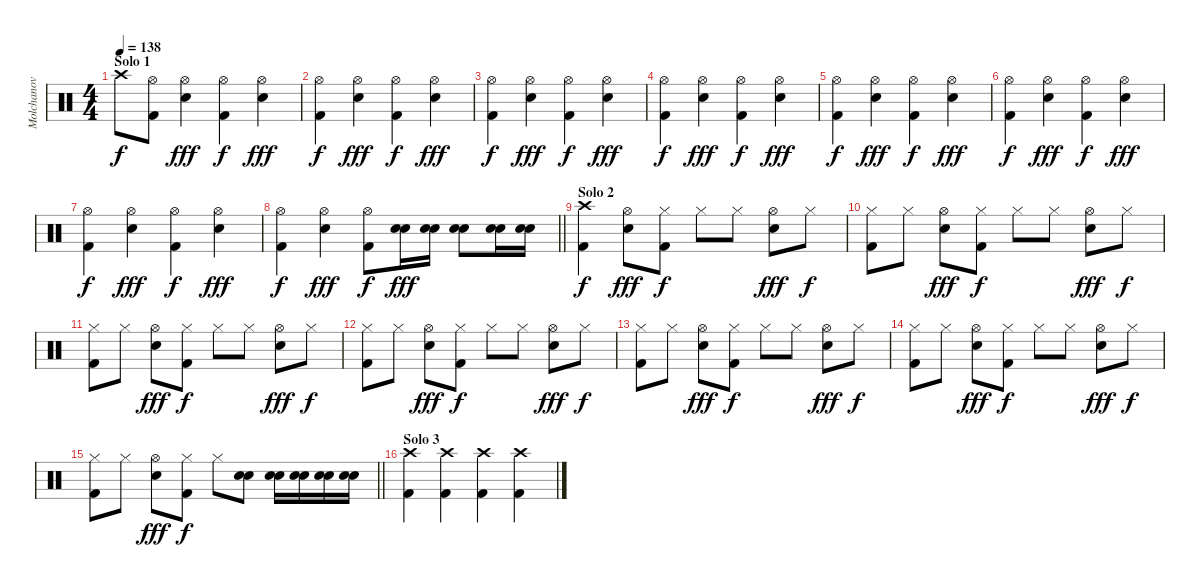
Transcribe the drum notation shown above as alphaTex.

\track ("Molchanov" "Molchanov") {instrument percussion}
\staff {score}
\articulation defaults
\ts (4 4)
\section ("" "Solo 1")
\tempo 138
\clef neutral
\ks c "Crash high (hit)"{t}.8{dy f}
("Hi-Hat (open)" "Kick (hit) 2").8 ("Hi-Hat (open)" "Electric Snare (hit)").4{dy fff} ("Hi-Hat (open)" "Kick (hit) 2").4{dy f} ("Hi-Hat (open)" "Electric Snare (hit)").4{dy fff} |
("Hi-Hat (open)" "Kick (hit) 2").4{dy f} ("Hi-Hat (open)" "Electric Snare (hit)").4{dy fff} ("Hi-Hat (open)" "Kick (hit) 2").4{dy f} ("Hi-Hat (open)" "Electric Snare (hit)").4{dy fff} |
("Hi-Hat (open)" "Kick (hit) 2").4{dy f} ("Hi-Hat (open)" "Electric Snare (hit)").4{dy fff} ("Hi-Hat (open)" "Kick (hit) 2").4{dy f} ("Hi-Hat (open)" "Electric Snare (hit)").4{dy fff} |
("Hi-Hat (open)" "Kick (hit) 2").4{dy f} ("Hi-Hat (open)" "Electric Snare (hit)").4{dy fff} ("Hi-Hat (open)" "Kick (hit) 2").4{dy f} ("Hi-Hat (open)" "Electric Snare (hit)").4{dy fff} |
("Hi-Hat (open)" "Kick (hit) 2").4{dy f} ("Hi-Hat (open)" "Electric Snare (hit)").4{dy fff} ("Hi-Hat (open)" "Kick (hit) 2").4{dy f} ("Hi-Hat (open)" "Electric Snare (hit)").4{dy fff} |
("Hi-Hat (open)" "Kick (hit) 2").4{dy f} ("Hi-Hat (open)" "Electric Snare (hit)").4{dy fff} ("Hi-Hat (open)" "Kick (hit) 2").4{dy f} ("Hi-Hat (open)" "Electric Snare (hit)").4{dy fff} |
("Hi-Hat (open)" "Kick (hit) 2").4{dy f} ("Hi-Hat (open)" "Electric Snare (hit)").4{dy fff} ("Hi-Hat (open)" "Kick (hit) 2").4{dy f} ("Hi-Hat (open)" "Electric Snare (hit)").4{dy fff} |
\barLineRight lightlight
("Hi-Hat (open)" "Kick (hit) 2").4{dy f} ("Hi-Hat (open)" "Electric Snare (hit)").4{dy fff} ("Hi-Hat (open)" "Kick (hit) 2").8{dy f} ("Electric Snare (hit)" "Electric Snare (hit)").16{dy fff} ("Electric Snare (hit)" "Electric Snare (hit)").16 ("Electric Snare (hit)" "Electric Snare (hit)").8 ("Electric Snare (hit)" "Electric Snare (hit)").16 ("Electric Snare (hit)" "Electric Snare (hit)").16 |
\section ("" "Solo 2")
("Crash high (hit)" "Kick (hit) 2").4{dy f} ("Hi-Hat (open)" "Electric Snare (hit)").8{dy fff} ("Hi-Hat (closed)" "Kick (hit) 2").8{dy f} "Hi-Hat (closed)".8 "Hi-Hat (closed)".8 ("Hi-Hat (open)" "Electric Snare (hit)").8{dy fff} "Hi-Hat (closed)".8{dy f} |
("Hi-Hat (closed)" "Kick (hit) 2").8 "Hi-Hat (closed)".8 ("Hi-Hat (open)" "Electric Snare (hit)").8{dy fff} ("Hi-Hat (closed)" "Kick (hit) 2").8{dy f} "Hi-Hat (closed)".8 "Hi-Hat (closed)".8 ("Hi-Hat (open)" "Electric Snare (hit)").8{dy fff} "Hi-Hat (closed)".8{dy f} |
("Hi-Hat (closed)" "Kick (hit) 2").8 "Hi-Hat (closed)".8 ("Hi-Hat (open)" "Electric Snare (hit)").8{dy fff} ("Hi-Hat (closed)" "Kick (hit) 2").8{dy f} "Hi-Hat (closed)".8 "Hi-Hat (closed)".8 ("Hi-Hat (open)" "Electric Snare (hit)").8{dy fff} "Hi-Hat (closed)".8{dy f} |
("Hi-Hat (closed)" "Kick (hit) 2").8 "Hi-Hat (closed)".8 ("Hi-Hat (open)" "Electric Snare (hit)").8{dy fff} ("Hi-Hat (closed)" "Kick (hit) 2").8{dy f} "Hi-Hat (closed)".8 "Hi-Hat (closed)".8 ("Hi-Hat (open)" "Electric Snare (hit)").8{dy fff} "Hi-Hat (closed)".8{dy f} |
("Hi-Hat (closed)" "Kick (hit) 2").8 "Hi-Hat (closed)".8 ("Hi-Hat (open)" "Electric Snare (hit)").8{dy fff} ("Hi-Hat (closed)" "Kick (hit) 2").8{dy f} "Hi-Hat (closed)".8 "Hi-Hat (closed)".8 ("Hi-Hat (open)" "Electric Snare (hit)").8{dy fff} "Hi-Hat (closed)".8{dy f} |
("Hi-Hat (closed)" "Kick (hit) 2").8 "Hi-Hat (closed)".8 ("Hi-Hat (open)" "Electric Snare (hit)").8{dy fff} ("Hi-Hat (closed)" "Kick (hit) 2").8{dy f} "Hi-Hat (closed)".8 "Hi-Hat (closed)".8 ("Hi-Hat (open)" "Electric Snare (hit)").8{dy fff} "Hi-Hat (closed)".8{dy f} |
\barLineRight lightlight
("Hi-Hat (closed)" "Kick (hit) 2").8 "Hi-Hat (closed)".8 ("Hi-Hat (open)" "Electric Snare (hit)").8{dy fff} ("Hi-Hat (closed)" "Kick (hit) 2").8{dy f} "Hi-Hat (closed)".8 ("Electric Snare (hit)" "Electric Snare (hit)").8 ("Electric Snare (hit)" "Electric Snare (hit)").16 ("Electric Snare (hit)" "Electric Snare (hit)").16 ("Electric Snare (hit)" "Electric Snare (hit)").16 ("Electric Snare (hit)" "Electric Snare (hit)").16 |
\section ("" "Solo 3")
("Crash high (hit)" "Kick (hit) 2").4 ("Crash high (hit)" "Kick (hit) 2").4 ("Crash high (hit)" "Kick (hit) 2").4 ("Crash high (hit)" "Kick (hit) 2").4
